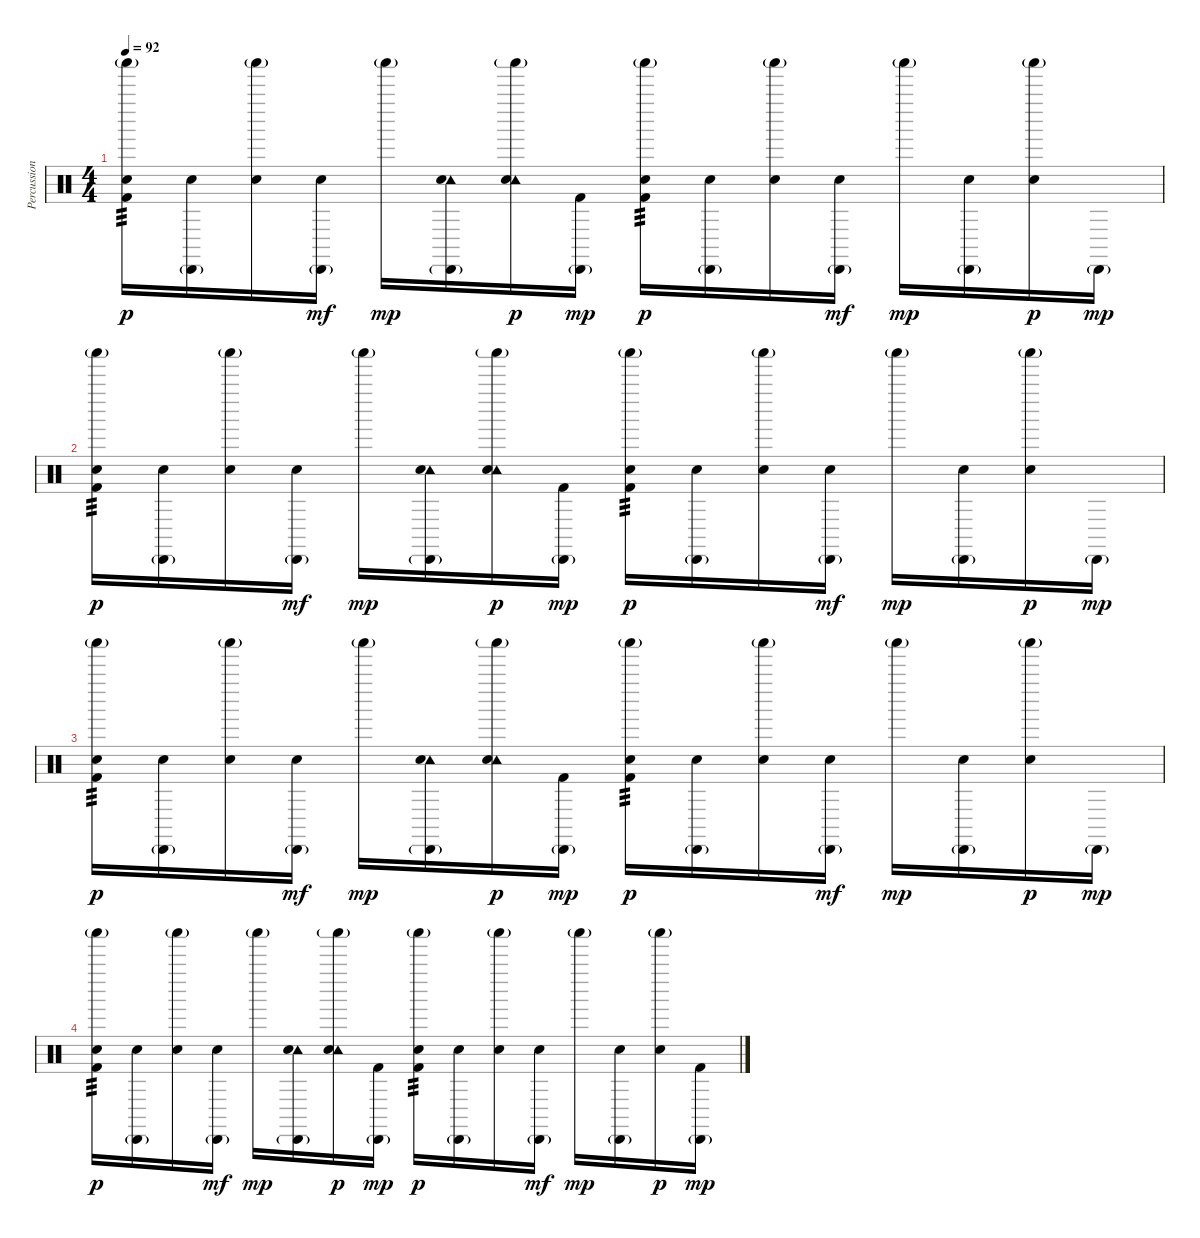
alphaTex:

\track ("Percussion2" "Percussion") {instrument percussion}
\staff {score}
\articulation defaults
\ts (4 4)
\tempo 92
\clef neutral
\ks c
("Shaker (hit)"{g} "Snare (hit) 2" "Kick (hit) 2").16{tp 3 dy p} ("Cabasa (hit)"{g} "Snare (hit) 2").16 ("Shaker (hit)"{g} "Snare (hit) 2").16 ("Cabasa (hit)"{g} "Snare (hit) 2").16{dy mf} "Shaker (hit)"{g}.16{dy mp} ("Cabasa (hit)"{g} "Tambourine (hit)" "Snare (hit) 2").16 ("Shaker (hit)"{g} "Tambourine (hit)" "Snare (hit) 2").16{dy p} ("Cabasa (hit)"{g} "Kick (hit) 2").16{dy mp} ("Shaker (hit)"{g} "Snare (hit) 2" "Kick (hit) 2").16{tp 3 dy p} ("Cabasa (hit)"{g} "Snare (hit) 2").16 ("Shaker (hit)"{g} "Snare (hit) 2").16 ("Cabasa (hit)"{g} "Snare (hit) 2").16{dy mf} "Shaker (hit)"{g}.16{dy mp} ("Cabasa (hit)"{g} "Snare (hit) 2").16 ("Shaker (hit)"{g} "Snare (hit) 2").16{dy p} "Cabasa (hit)"{g}.16{dy mp} |
("Shaker (hit)"{g} "Snare (hit) 2" "Kick (hit) 2").16{tp 3 dy p} ("Cabasa (hit)"{g} "Snare (hit) 2").16 ("Shaker (hit)"{g} "Snare (hit) 2").16 ("Cabasa (hit)"{g} "Snare (hit) 2").16{dy mf} "Shaker (hit)"{g}.16{dy mp} ("Cabasa (hit)"{g} "Tambourine (hit)" "Snare (hit) 2").16 ("Shaker (hit)"{g} "Tambourine (hit)" "Snare (hit) 2").16{dy p} ("Cabasa (hit)"{g} "Kick (hit) 2").16{dy mp} ("Shaker (hit)"{g} "Snare (hit) 2" "Kick (hit) 2").16{tp 3 dy p} ("Cabasa (hit)"{g} "Snare (hit) 2").16 ("Shaker (hit)"{g} "Snare (hit) 2").16 ("Cabasa (hit)"{g} "Snare (hit) 2").16{dy mf} "Shaker (hit)"{g}.16{dy mp} ("Cabasa (hit)"{g} "Snare (hit) 2").16 ("Shaker (hit)"{g} "Snare (hit) 2").16{dy p} "Cabasa (hit)"{g}.16{dy mp} |
("Shaker (hit)"{g} "Snare (hit) 2" "Kick (hit) 2").16{tp 3 dy p} ("Cabasa (hit)"{g} "Snare (hit) 2").16 ("Shaker (hit)"{g} "Snare (hit) 2").16 ("Cabasa (hit)"{g} "Snare (hit) 2").16{dy mf} "Shaker (hit)"{g}.16{dy mp} ("Cabasa (hit)"{g} "Tambourine (hit)" "Snare (hit) 2").16 ("Shaker (hit)"{g} "Tambourine (hit)" "Snare (hit) 2").16{dy p} ("Cabasa (hit)"{g} "Kick (hit) 2").16{dy mp} ("Shaker (hit)"{g} "Snare (hit) 2" "Kick (hit) 2").16{tp 3 dy p} ("Cabasa (hit)"{g} "Snare (hit) 2").16 ("Shaker (hit)"{g} "Snare (hit) 2").16 ("Cabasa (hit)"{g} "Snare (hit) 2").16{dy mf} "Shaker (hit)"{g}.16{dy mp} ("Cabasa (hit)"{g} "Snare (hit) 2").16 ("Shaker (hit)"{g} "Snare (hit) 2").16{dy p} "Cabasa (hit)"{g}.16{dy mp} |
("Shaker (hit)"{g} "Snare (hit) 2" "Kick (hit) 2").16{tp 3 dy p} ("Cabasa (hit)"{g} "Snare (hit) 2").16 ("Shaker (hit)"{g} "Snare (hit) 2").16 ("Cabasa (hit)"{g} "Snare (hit) 2").16{dy mf} "Shaker (hit)"{g}.16{dy mp} ("Cabasa (hit)"{g} "Tambourine (hit)" "Snare (hit) 2").16 ("Shaker (hit)"{g} "Tambourine (hit)" "Snare (hit) 2").16{dy p} ("Cabasa (hit)"{g} "Kick (hit) 2").16{dy mp} ("Shaker (hit)"{g} "Snare (hit) 2" "Kick (hit) 2").16{tp 3 dy p} ("Cabasa (hit)"{g} "Snare (hit) 2").16 ("Shaker (hit)"{g} "Snare (hit) 2").16 ("Cabasa (hit)"{g} "Snare (hit) 2").16{dy mf} "Shaker (hit)"{g}.16{dy mp} ("Cabasa (hit)"{g} "Snare (hit) 2").16 ("Shaker (hit)"{g} "Snare (hit) 2").16{dy p} ("Cabasa (hit)"{g} "Kick (hit) 2").16{dy mp}
